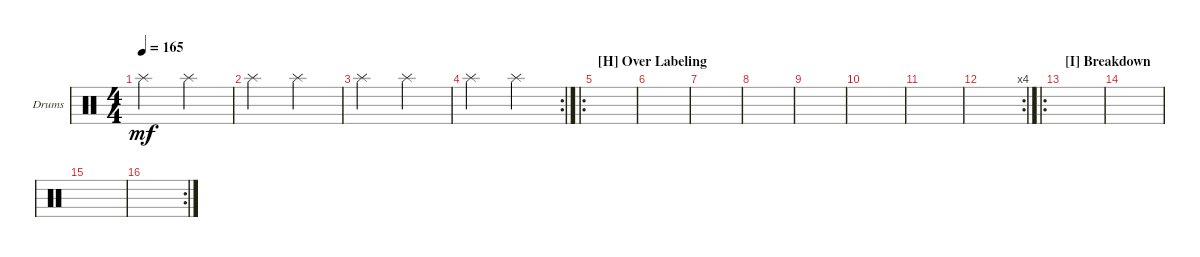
\bracketExtendMode groupsimilarinstruments
\firstSystemTrackNameOrientation horizontal
\otherSystemsTrackNameOrientation horizontal
\track ("Drumkit" "Drums") {instrument percussion}
\staff {score}
\articulation defaults
\ts (4 4)
\tempo 165
\clef neutral
\ks c "Splash (hit)".2{dy mf} "Splash (hit)".2
|
"Splash (hit)".2 "Splash (hit)".2 |
"Splash (hit)".2 "Splash (hit)".2 |
\rc 2 "Splash (hit)".2 "Splash (hit)".2
|
\ro
\section ("H" "Over Labeling")
|
|
|
|
|
|
|
\rc 4
|
\ro
\section ("I" "Breakdown")
|
|
|
\rc 2
